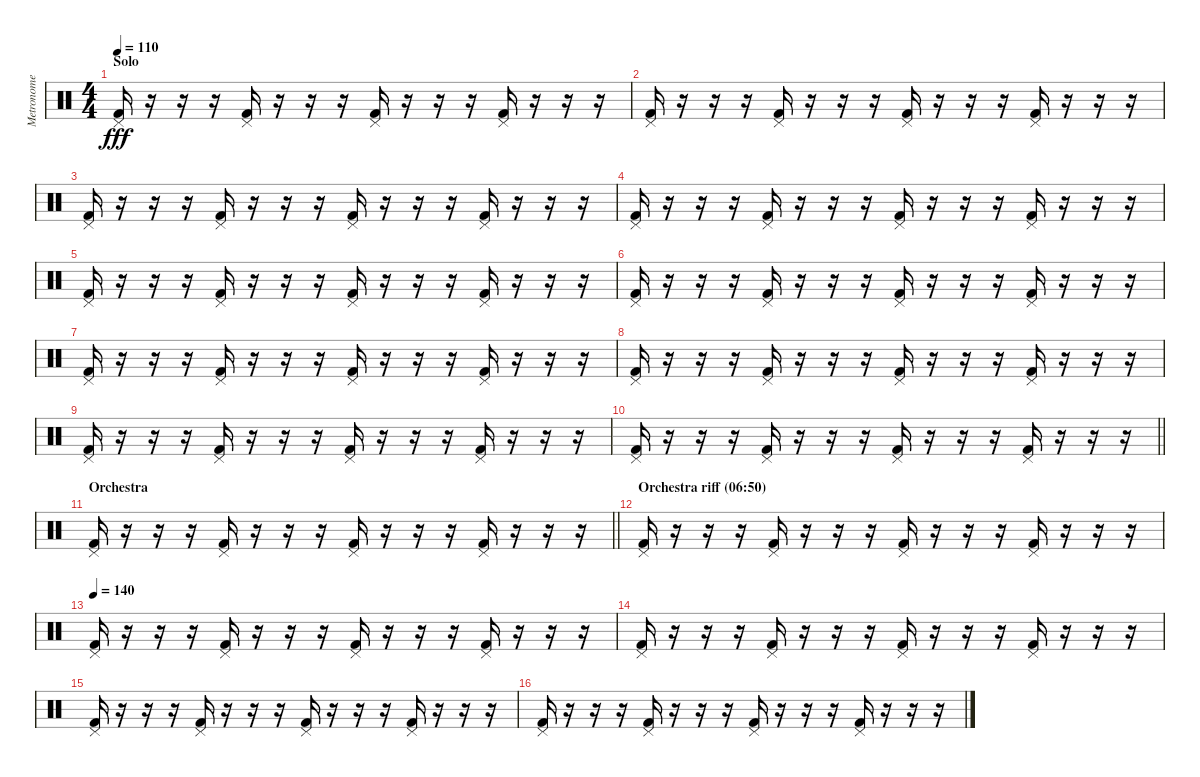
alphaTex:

\track ("Metronome" "Metronome") {mute instrument percussion}
\staff {score}
\articulation defaults
\ts (4 4)
\section ("" "Solo")
\tempo 110
\clef neutral
\ks c
("Pedal Hi-Hat (hit)" "Kick (hit) 2").16{dy fff} r.16 r.16 r.16 ("Pedal Hi-Hat (hit)" "Kick (hit) 2").16 r.16 r.16 r.16 ("Pedal Hi-Hat (hit)" "Kick (hit) 2").16 r.16 r.16 r.16 ("Pedal Hi-Hat (hit)" "Kick (hit) 2").16 r.16 r.16 r.16 |
("Pedal Hi-Hat (hit)" "Kick (hit) 2").16 r.16 r.16 r.16 ("Pedal Hi-Hat (hit)" "Kick (hit) 2").16 r.16 r.16 r.16 ("Pedal Hi-Hat (hit)" "Kick (hit) 2").16 r.16 r.16 r.16 ("Pedal Hi-Hat (hit)" "Kick (hit) 2").16 r.16 r.16 r.16 |
("Pedal Hi-Hat (hit)" "Kick (hit) 2").16 r.16 r.16 r.16 ("Pedal Hi-Hat (hit)" "Kick (hit) 2").16 r.16 r.16 r.16 ("Pedal Hi-Hat (hit)" "Kick (hit) 2").16 r.16 r.16 r.16 ("Pedal Hi-Hat (hit)" "Kick (hit) 2").16 r.16 r.16 r.16 |
("Pedal Hi-Hat (hit)" "Kick (hit) 2").16 r.16 r.16 r.16 ("Pedal Hi-Hat (hit)" "Kick (hit) 2").16 r.16 r.16 r.16 ("Pedal Hi-Hat (hit)" "Kick (hit) 2").16 r.16 r.16 r.16 ("Pedal Hi-Hat (hit)" "Kick (hit) 2").16 r.16 r.16 r.16 |
("Pedal Hi-Hat (hit)" "Kick (hit) 2").16 r.16 r.16 r.16 ("Pedal Hi-Hat (hit)" "Kick (hit) 2").16 r.16 r.16 r.16 ("Pedal Hi-Hat (hit)" "Kick (hit) 2").16 r.16 r.16 r.16 ("Pedal Hi-Hat (hit)" "Kick (hit) 2").16 r.16 r.16 r.16 |
("Pedal Hi-Hat (hit)" "Kick (hit) 2").16 r.16 r.16 r.16 ("Pedal Hi-Hat (hit)" "Kick (hit) 2").16 r.16 r.16 r.16 ("Pedal Hi-Hat (hit)" "Kick (hit) 2").16 r.16 r.16 r.16 ("Pedal Hi-Hat (hit)" "Kick (hit) 2").16 r.16 r.16 r.16 |
("Pedal Hi-Hat (hit)" "Kick (hit) 2").16 r.16 r.16 r.16 ("Pedal Hi-Hat (hit)" "Kick (hit) 2").16 r.16 r.16 r.16 ("Pedal Hi-Hat (hit)" "Kick (hit) 2").16 r.16 r.16 r.16 ("Pedal Hi-Hat (hit)" "Kick (hit) 2").16 r.16 r.16 r.16 |
("Pedal Hi-Hat (hit)" "Kick (hit) 2").16 r.16 r.16 r.16 ("Pedal Hi-Hat (hit)" "Kick (hit) 2").16 r.16 r.16 r.16 ("Pedal Hi-Hat (hit)" "Kick (hit) 2").16 r.16 r.16 r.16 ("Pedal Hi-Hat (hit)" "Kick (hit) 2").16 r.16 r.16 r.16 |
("Pedal Hi-Hat (hit)" "Kick (hit) 2").16 r.16 r.16 r.16 ("Pedal Hi-Hat (hit)" "Kick (hit) 2").16 r.16 r.16 r.16 ("Pedal Hi-Hat (hit)" "Kick (hit) 2").16 r.16 r.16 r.16 ("Pedal Hi-Hat (hit)" "Kick (hit) 2").16 r.16 r.16 r.16 |
\barLineRight lightlight
("Pedal Hi-Hat (hit)" "Kick (hit) 2").16 r.16 r.16 r.16 ("Pedal Hi-Hat (hit)" "Kick (hit) 2").16 r.16 r.16 r.16 ("Pedal Hi-Hat (hit)" "Kick (hit) 2").16 r.16 r.16 r.16 ("Pedal Hi-Hat (hit)" "Kick (hit) 2").16 r.16 r.16 r.16 |
\section ("" "Orchestra")
\barLineRight lightlight
("Pedal Hi-Hat (hit)" "Kick (hit) 2").16 r.16 r.16 r.16 ("Pedal Hi-Hat (hit)" "Kick (hit) 2").16 r.16 r.16 r.16 ("Pedal Hi-Hat (hit)" "Kick (hit) 2").16 r.16 r.16 r.16 ("Pedal Hi-Hat (hit)" "Kick (hit) 2").16 r.16 r.16 r.16 |
\section ("" "Orchestra riff (06:50)")
("Pedal Hi-Hat (hit)" "Kick (hit) 2").16 r.16 r.16 r.16 ("Pedal Hi-Hat (hit)" "Kick (hit) 2").16 r.16 r.16 r.16 ("Pedal Hi-Hat (hit)" "Kick (hit) 2").16 r.16 r.16 r.16 ("Pedal Hi-Hat (hit)" "Kick (hit) 2").16 r.16 r.16 r.16 |
\tempo 140
("Pedal Hi-Hat (hit)" "Kick (hit) 2").16 r.16 r.16 r.16 ("Pedal Hi-Hat (hit)" "Kick (hit) 2").16 r.16 r.16 r.16 ("Pedal Hi-Hat (hit)" "Kick (hit) 2").16 r.16 r.16 r.16 ("Pedal Hi-Hat (hit)" "Kick (hit) 2").16 r.16 r.16 r.16 |
("Pedal Hi-Hat (hit)" "Kick (hit) 2").16 r.16 r.16 r.16 ("Pedal Hi-Hat (hit)" "Kick (hit) 2").16 r.16 r.16 r.16 ("Pedal Hi-Hat (hit)" "Kick (hit) 2").16 r.16 r.16 r.16 ("Pedal Hi-Hat (hit)" "Kick (hit) 2").16 r.16 r.16 r.16 |
("Pedal Hi-Hat (hit)" "Kick (hit) 2").16 r.16 r.16 r.16 ("Pedal Hi-Hat (hit)" "Kick (hit) 2").16 r.16 r.16 r.16 ("Pedal Hi-Hat (hit)" "Kick (hit) 2").16 r.16 r.16 r.16 ("Pedal Hi-Hat (hit)" "Kick (hit) 2").16 r.16 r.16 r.16 |
("Pedal Hi-Hat (hit)" "Kick (hit) 2").16 r.16 r.16 r.16 ("Pedal Hi-Hat (hit)" "Kick (hit) 2").16 r.16 r.16 r.16 ("Pedal Hi-Hat (hit)" "Kick (hit) 2").16 r.16 r.16 r.16 ("Pedal Hi-Hat (hit)" "Kick (hit) 2").16 r.16 r.16 r.16
